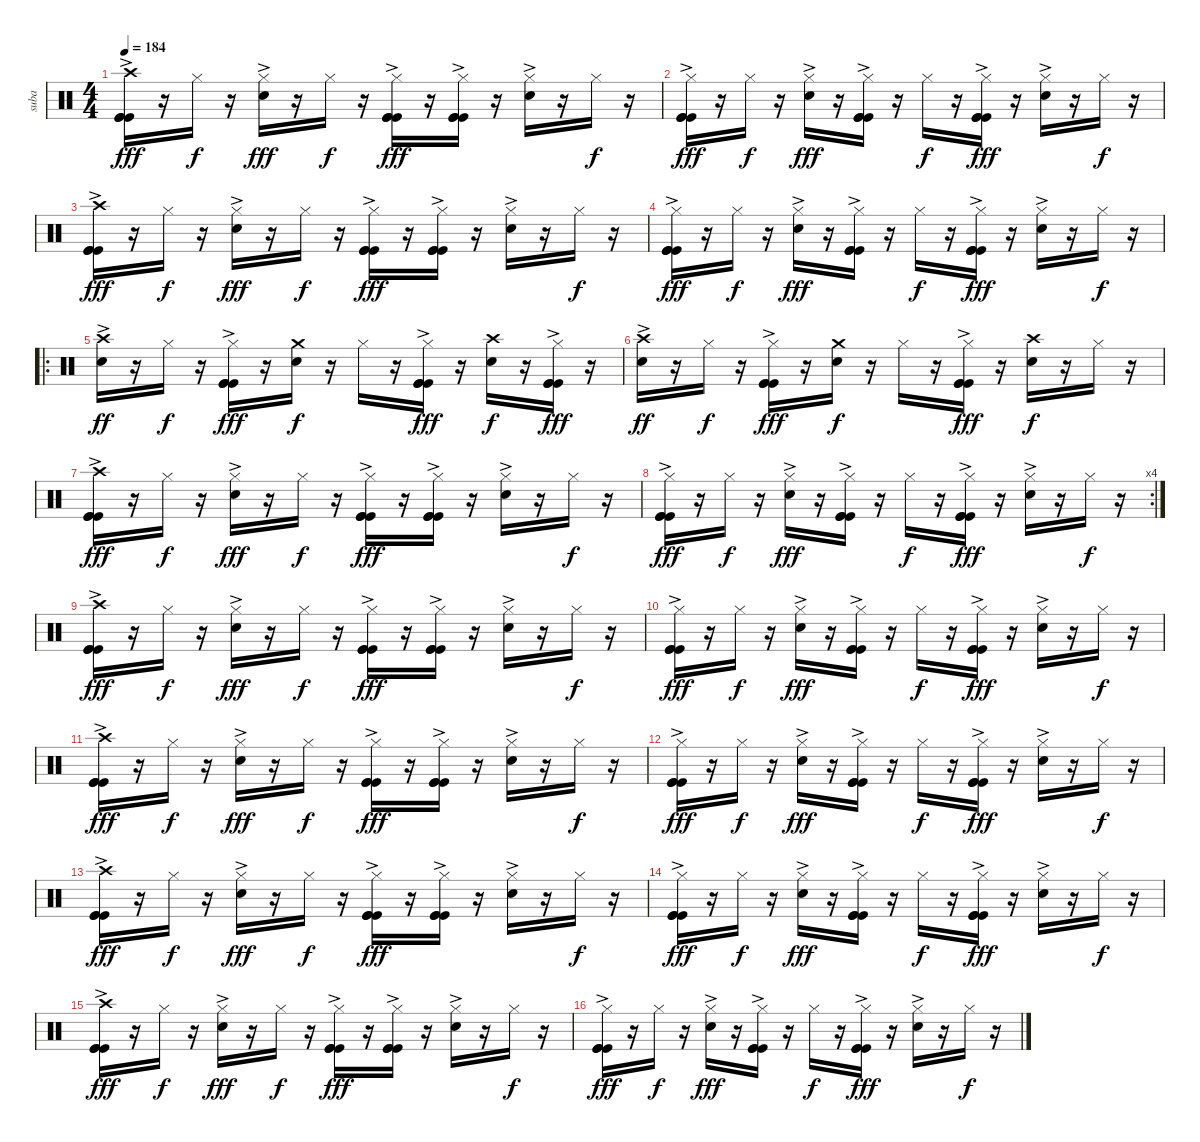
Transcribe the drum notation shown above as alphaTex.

\track ("suba" "suba") {instrument percussion}
\staff {score}
\articulation defaults
\ts (4 4)
\tempo 184
\clef neutral
\ks c
("Crash high (hit)"{ac} "Kick (hit)"{ac} "Kick (hit)"{ac} "Kick (hit)"{ac}).16{dy fff} r.16 "Hi-Hat (closed)".16{dy f} r.16 ("Hi-Hat (closed)" "Snare (hit) 2"{ac}).16{dy fff} r.16 "Hi-Hat (closed)".16{dy f} r.16 ("Hi-Hat (closed)" "Kick (hit)"{ac} "Kick (hit)"{ac} "Kick (hit)"{ac}).16{dy fff} r.16 ("Hi-Hat (closed)" "Kick (hit)"{ac} "Kick (hit)"{ac} "Kick (hit)"{ac}).16 r.16 ("Hi-Hat (closed)" "Snare (hit) 2"{ac}).16 r.16 "Hi-Hat (closed)".16{dy f} r.16 |
("Hi-Hat (closed)" "Kick (hit)"{ac} "Kick (hit)"{ac} "Kick (hit)"{ac}).16{dy fff} r.16 "Hi-Hat (closed)".16{dy f} r.16 ("Hi-Hat (closed)" "Snare (hit) 2"{ac}).16{dy fff} r.16 ("Hi-Hat (closed)" "Kick (hit)"{ac} "Kick (hit)"{ac} "Kick (hit)"{ac}).16 r.16 "Hi-Hat (closed)".16{dy f} r.16 ("Hi-Hat (closed)" "Kick (hit)"{ac} "Kick (hit)"{ac} "Kick (hit)"{ac}).16{dy fff} r.16 ("Hi-Hat (closed)" "Snare (hit) 2"{ac}).16 r.16 "Hi-Hat (closed)".16{dy f} r.16 |
("Crash high (hit)"{ac} "Kick (hit)"{ac} "Kick (hit)"{ac} "Kick (hit)"{ac}).16{dy fff} r.16 "Hi-Hat (closed)".16{dy f} r.16 ("Hi-Hat (closed)" "Snare (hit) 2"{ac}).16{dy fff} r.16 "Hi-Hat (closed)".16{dy f} r.16 ("Hi-Hat (closed)" "Kick (hit)"{ac} "Kick (hit)"{ac} "Kick (hit)"{ac}).16{dy fff} r.16 ("Hi-Hat (closed)" "Kick (hit)"{ac} "Kick (hit)"{ac} "Kick (hit)"{ac}).16 r.16 ("Hi-Hat (closed)" "Snare (hit) 2"{ac}).16 r.16 "Hi-Hat (closed)".16{dy f} r.16 |
("Hi-Hat (closed)" "Kick (hit)"{ac} "Kick (hit)"{ac} "Kick (hit)"{ac}).16{dy fff} r.16 "Hi-Hat (closed)".16{dy f} r.16 ("Hi-Hat (closed)" "Snare (hit) 2"{ac}).16{dy fff} r.16 ("Hi-Hat (closed)" "Kick (hit)"{ac} "Kick (hit)"{ac} "Kick (hit)"{ac}).16 r.16 "Hi-Hat (closed)".16{dy f} r.16 ("Hi-Hat (closed)" "Kick (hit)"{ac} "Kick (hit)"{ac} "Kick (hit)"{ac}).16{dy fff} r.16 ("Hi-Hat (closed)" "Snare (hit) 2"{ac}).16 r.16 "Hi-Hat (closed)".16{dy f} r.16 |
\ro
("Crash high (hit)"{ac} "Snare (hit) 2").16{dy ff} r.16 "Hi-Hat (closed)".16{dy f} r.16 ("Hi-Hat (closed)" "Kick (hit)"{ac} "Kick (hit)"{ac} "Kick (hit)"{ac}).16{dy fff} r.16 ("Crash medium (hit)" "Snare (hit) 2").16{dy f} r.16 "Hi-Hat (closed)".16 r.16 ("Hi-Hat (closed)" "Kick (hit)"{ac} "Kick (hit)"{ac} "Kick (hit)"{ac}).16{dy fff} r.16 ("Crash high (hit)" "Snare (hit) 2").16{dy f} r.16 ("Hi-Hat (closed)" "Kick (hit)"{ac} "Kick (hit)"{ac} "Kick (hit)"{ac}).16{dy fff} r.16 |
("Crash high (hit)"{ac} "Snare (hit) 2").16{dy ff} r.16 "Hi-Hat (closed)".16{dy f} r.16 ("Hi-Hat (closed)" "Kick (hit)"{ac} "Kick (hit)"{ac} "Kick (hit)"{ac}).16{dy fff} r.16 ("Crash medium (hit)" "Snare (hit) 2").16{dy f} r.16 "Hi-Hat (closed)".16 r.16 ("Hi-Hat (closed)" "Kick (hit)"{ac} "Kick (hit)"{ac} "Kick (hit)"{ac}).16{dy fff} r.16 ("Crash high (hit)" "Snare (hit) 2").16{dy f} r.16 "Hi-Hat (closed)".16 r.16 |
("Crash high (hit)"{ac} "Kick (hit)"{ac} "Kick (hit)"{ac} "Kick (hit)"{ac}).16{dy fff} r.16 "Hi-Hat (closed)".16{dy f} r.16 ("Hi-Hat (closed)" "Snare (hit) 2"{ac}).16{dy fff} r.16 "Hi-Hat (closed)".16{dy f} r.16 ("Hi-Hat (closed)" "Kick (hit)"{ac} "Kick (hit)"{ac} "Kick (hit)"{ac}).16{dy fff} r.16 ("Hi-Hat (closed)" "Kick (hit)"{ac} "Kick (hit)"{ac} "Kick (hit)"{ac}).16 r.16 ("Hi-Hat (closed)" "Snare (hit) 2"{ac}).16 r.16 "Hi-Hat (closed)".16{dy f} r.16 |
\rc 4
("Hi-Hat (closed)" "Kick (hit)"{ac} "Kick (hit)"{ac} "Kick (hit)"{ac}).16{dy fff} r.16 "Hi-Hat (closed)".16{dy f} r.16 ("Hi-Hat (closed)" "Snare (hit) 2"{ac}).16{dy fff} r.16 ("Hi-Hat (closed)" "Kick (hit)"{ac} "Kick (hit)"{ac} "Kick (hit)"{ac}).16 r.16 "Hi-Hat (closed)".16{dy f} r.16 ("Hi-Hat (closed)" "Kick (hit)"{ac} "Kick (hit)"{ac} "Kick (hit)"{ac}).16{dy fff} r.16 ("Hi-Hat (closed)" "Snare (hit) 2"{ac}).16 r.16 "Hi-Hat (closed)".16{dy f} r.16 |
("Crash high (hit)"{ac} "Kick (hit)"{ac} "Kick (hit)"{ac} "Kick (hit)"{ac}).16{dy fff} r.16 "Hi-Hat (closed)".16{dy f} r.16 ("Hi-Hat (closed)" "Snare (hit) 2"{ac}).16{dy fff} r.16 "Hi-Hat (closed)".16{dy f} r.16 ("Hi-Hat (closed)" "Kick (hit)"{ac} "Kick (hit)"{ac} "Kick (hit)"{ac}).16{dy fff} r.16 ("Hi-Hat (closed)" "Kick (hit)"{ac} "Kick (hit)"{ac} "Kick (hit)"{ac}).16 r.16 ("Hi-Hat (closed)" "Snare (hit) 2"{ac}).16 r.16 "Hi-Hat (closed)".16{dy f} r.16 |
("Hi-Hat (closed)" "Kick (hit)"{ac} "Kick (hit)"{ac} "Kick (hit)"{ac}).16{dy fff} r.16 "Hi-Hat (closed)".16{dy f} r.16 ("Hi-Hat (closed)" "Snare (hit) 2"{ac}).16{dy fff} r.16 ("Hi-Hat (closed)" "Kick (hit)"{ac} "Kick (hit)"{ac} "Kick (hit)"{ac}).16 r.16 "Hi-Hat (closed)".16{dy f} r.16 ("Hi-Hat (closed)" "Kick (hit)"{ac} "Kick (hit)"{ac} "Kick (hit)"{ac}).16{dy fff} r.16 ("Hi-Hat (closed)" "Snare (hit) 2"{ac}).16 r.16 "Hi-Hat (closed)".16{dy f} r.16 |
("Crash high (hit)"{ac} "Kick (hit)"{ac} "Kick (hit)"{ac} "Kick (hit)"{ac}).16{dy fff} r.16 "Hi-Hat (closed)".16{dy f} r.16 ("Hi-Hat (closed)" "Snare (hit) 2"{ac}).16{dy fff} r.16 "Hi-Hat (closed)".16{dy f} r.16 ("Hi-Hat (closed)" "Kick (hit)"{ac} "Kick (hit)"{ac} "Kick (hit)"{ac}).16{dy fff} r.16 ("Hi-Hat (closed)" "Kick (hit)"{ac} "Kick (hit)"{ac} "Kick (hit)"{ac}).16 r.16 ("Hi-Hat (closed)" "Snare (hit) 2"{ac}).16 r.16 "Hi-Hat (closed)".16{dy f} r.16 |
("Hi-Hat (closed)" "Kick (hit)"{ac} "Kick (hit)"{ac} "Kick (hit)"{ac}).16{dy fff} r.16 "Hi-Hat (closed)".16{dy f} r.16 ("Hi-Hat (closed)" "Snare (hit) 2"{ac}).16{dy fff} r.16 ("Hi-Hat (closed)" "Kick (hit)"{ac} "Kick (hit)"{ac} "Kick (hit)"{ac}).16 r.16 "Hi-Hat (closed)".16{dy f} r.16 ("Hi-Hat (closed)" "Kick (hit)"{ac} "Kick (hit)"{ac} "Kick (hit)"{ac}).16{dy fff} r.16 ("Hi-Hat (closed)" "Snare (hit) 2"{ac}).16 r.16 "Hi-Hat (closed)".16{dy f} r.16 |
("Crash high (hit)"{ac} "Kick (hit)"{ac} "Kick (hit)"{ac} "Kick (hit)"{ac}).16{dy fff} r.16 "Hi-Hat (closed)".16{dy f} r.16 ("Hi-Hat (closed)" "Snare (hit) 2"{ac}).16{dy fff} r.16 "Hi-Hat (closed)".16{dy f} r.16 ("Hi-Hat (closed)" "Kick (hit)"{ac} "Kick (hit)"{ac} "Kick (hit)"{ac}).16{dy fff} r.16 ("Hi-Hat (closed)" "Kick (hit)"{ac} "Kick (hit)"{ac} "Kick (hit)"{ac}).16 r.16 ("Hi-Hat (closed)" "Snare (hit) 2"{ac}).16 r.16 "Hi-Hat (closed)".16{dy f} r.16 |
("Hi-Hat (closed)" "Kick (hit)"{ac} "Kick (hit)"{ac} "Kick (hit)"{ac}).16{dy fff} r.16 "Hi-Hat (closed)".16{dy f} r.16 ("Hi-Hat (closed)" "Snare (hit) 2"{ac}).16{dy fff} r.16 ("Hi-Hat (closed)" "Kick (hit)"{ac} "Kick (hit)"{ac} "Kick (hit)"{ac}).16 r.16 "Hi-Hat (closed)".16{dy f} r.16 ("Hi-Hat (closed)" "Kick (hit)"{ac} "Kick (hit)"{ac} "Kick (hit)"{ac}).16{dy fff} r.16 ("Hi-Hat (closed)" "Snare (hit) 2"{ac}).16 r.16 "Hi-Hat (closed)".16{dy f} r.16 |
("Crash high (hit)"{ac} "Kick (hit)"{ac} "Kick (hit)"{ac} "Kick (hit)"{ac}).16{dy fff} r.16 "Hi-Hat (closed)".16{dy f} r.16 ("Hi-Hat (closed)" "Snare (hit) 2"{ac}).16{dy fff} r.16 "Hi-Hat (closed)".16{dy f} r.16 ("Hi-Hat (closed)" "Kick (hit)"{ac} "Kick (hit)"{ac} "Kick (hit)"{ac}).16{dy fff} r.16 ("Hi-Hat (closed)" "Kick (hit)"{ac} "Kick (hit)"{ac} "Kick (hit)"{ac}).16 r.16 ("Hi-Hat (closed)" "Snare (hit) 2"{ac}).16 r.16 "Hi-Hat (closed)".16{dy f} r.16 |
("Hi-Hat (closed)" "Kick (hit)"{ac} "Kick (hit)"{ac} "Kick (hit)"{ac}).16{dy fff} r.16 "Hi-Hat (closed)".16{dy f} r.16 ("Hi-Hat (closed)" "Snare (hit) 2"{ac}).16{dy fff} r.16 ("Hi-Hat (closed)" "Kick (hit)"{ac} "Kick (hit)"{ac} "Kick (hit)"{ac}).16 r.16 "Hi-Hat (closed)".16{dy f} r.16 ("Hi-Hat (closed)" "Kick (hit)"{ac} "Kick (hit)"{ac} "Kick (hit)"{ac}).16{dy fff} r.16 ("Hi-Hat (closed)" "Snare (hit) 2"{ac}).16 r.16 "Hi-Hat (closed)".16{dy f} r.16
